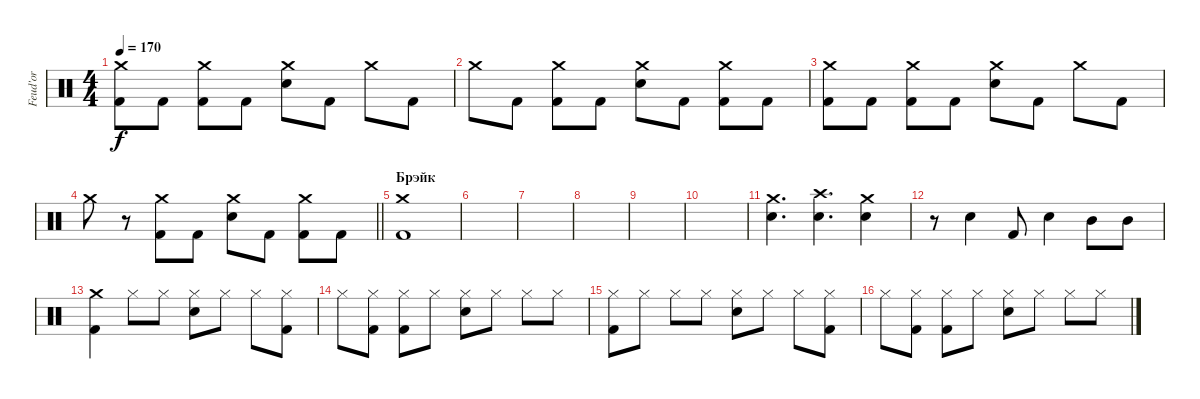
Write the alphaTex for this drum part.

\track ("Feud'or" "Feud'or") {instrument percussion}
\staff {score}
\articulation defaults
\ts (4 4)
\tempo 170
\clef neutral
\ks c
("Crash medium (hit)" "Kick (hit) 2").8{dy f} "Kick (hit) 2".8 ("Crash medium (hit)" "Kick (hit) 2").8 "Kick (hit) 2".8 ("Crash medium (hit)" "Electric Snare (hit)").8 "Kick (hit) 2".8 "Crash medium (hit)".8 "Kick (hit) 2".8 |
"Crash medium (hit)".8 "Kick (hit) 2".8 ("Crash medium (hit)" "Kick (hit) 2").8 "Kick (hit) 2".8 ("Crash medium (hit)" "Electric Snare (hit)").8 "Kick (hit) 2".8 ("Crash medium (hit)" "Kick (hit) 2").8 "Kick (hit) 2".8 |
("Crash medium (hit)" "Kick (hit) 2").8 "Kick (hit) 2".8 ("Crash medium (hit)" "Kick (hit) 2").8 "Kick (hit) 2".8 ("Crash medium (hit)" "Electric Snare (hit)").8 "Kick (hit) 2".8 "Crash medium (hit)".8 "Kick (hit) 2".8 |
\barLineRight lightlight "Crash medium (hit)".8
r.8 ("Crash medium (hit)" "Kick (hit) 2").8 "Kick (hit) 2".8 ("Crash medium (hit)" "Electric Snare (hit)").8 "Kick (hit) 2".8 ("Crash medium (hit)" "Kick (hit) 2").8 "Kick (hit) 2".8 |
\section ("" "Брэйк")
("Crash medium (hit)" "Kick (hit) 2").1 |
|
|
|
|
|
("Crash medium (hit)" "Electric Snare (hit)").4{d} ("Crash high (hit)" "Electric Snare (hit)").4{d} ("Crash medium (hit)" "Electric Snare (hit)").4 |
r.8 "Electric Snare (hit)".4 "Kick (hit) 2".8 "Electric Snare (hit)".4 "Mid Tom (hit)".8 "Mid Tom (hit)".8 |
("Crash medium (hit)" "Kick (hit) 2").4 "Hi-Hat (closed)".8 "Hi-Hat (closed)".8 ("Hi-Hat (closed)" "Electric Snare (hit)").8 "Hi-Hat (closed)".8 "Hi-Hat (closed)".8 ("Hi-Hat (closed)" "Kick (hit) 2").8 |
"Hi-Hat (closed)".8 ("Hi-Hat (closed)" "Kick (hit) 2").8 ("Hi-Hat (closed)" "Kick (hit) 2").8 "Hi-Hat (closed)".8 ("Hi-Hat (closed)" "Electric Snare (hit)").8 "Hi-Hat (closed)".8 "Hi-Hat (closed)".8 "Hi-Hat (closed)".8 |
("Hi-Hat (closed)" "Kick (hit) 2").8 "Hi-Hat (closed)".8 "Hi-Hat (closed)".8 "Hi-Hat (closed)".8 ("Hi-Hat (closed)" "Electric Snare (hit)").8 "Hi-Hat (closed)".8 "Hi-Hat (closed)".8 ("Hi-Hat (closed)" "Kick (hit) 2").8 |
"Hi-Hat (closed)".8 ("Hi-Hat (closed)" "Kick (hit) 2").8 ("Hi-Hat (closed)" "Kick (hit) 2").8 "Hi-Hat (closed)".8 ("Hi-Hat (closed)" "Electric Snare (hit)").8 "Hi-Hat (closed)".8 "Hi-Hat (closed)".8 "Hi-Hat (closed)".8
